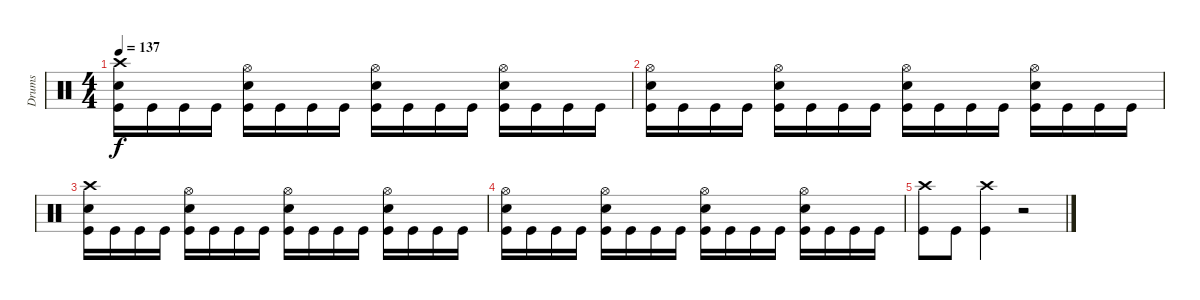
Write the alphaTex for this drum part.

\track ("Drums" "Drums") {instrument percussion}
\staff {score}
\articulation defaults
\ts (4 4)
\tempo 137
\clef neutral
\ks c
("Kick (hit)" "Snare (hit) 2" "Crash high (hit)").16{dy f} "Kick (hit)".16 "Kick (hit)".16 "Kick (hit)".16 ("Kick (hit)" "Snare (hit) 2" "Hi-Hat (open)").16 "Kick (hit)".16 "Kick (hit)".16 "Kick (hit)".16 ("Kick (hit)" "Snare (hit) 2" "Hi-Hat (open)").16 "Kick (hit)".16 "Kick (hit)".16 "Kick (hit)".16 ("Kick (hit)" "Snare (hit) 2" "Hi-Hat (open)").16 "Kick (hit)".16 "Kick (hit)".16 "Kick (hit)".16 |
("Kick (hit)" "Snare (hit) 2" "Hi-Hat (open)").16 "Kick (hit)".16 "Kick (hit)".16 "Kick (hit)".16 ("Kick (hit)" "Snare (hit) 2" "Hi-Hat (open)").16 "Kick (hit)".16 "Kick (hit)".16 "Kick (hit)".16 ("Kick (hit)" "Snare (hit) 2" "Hi-Hat (open)").16 "Kick (hit)".16 "Kick (hit)".16 "Kick (hit)".16 ("Kick (hit)" "Snare (hit) 2" "Hi-Hat (open)").16 "Kick (hit)".16 "Kick (hit)".16 "Kick (hit)".16 |
("Kick (hit)" "Snare (hit) 2" "Crash high (hit)").16 "Kick (hit)".16 "Kick (hit)".16 "Kick (hit)".16 ("Kick (hit)" "Snare (hit) 2" "Hi-Hat (open)").16 "Kick (hit)".16 "Kick (hit)".16 "Kick (hit)".16 ("Kick (hit)" "Snare (hit) 2" "Hi-Hat (open)").16 "Kick (hit)".16 "Kick (hit)".16 "Kick (hit)".16 ("Kick (hit)" "Snare (hit) 2" "Hi-Hat (open)").16 "Kick (hit)".16 "Kick (hit)".16 "Kick (hit)".16 |
("Kick (hit)" "Snare (hit) 2" "Hi-Hat (open)").16 "Kick (hit)".16 "Kick (hit)".16 "Kick (hit)".16 ("Kick (hit)" "Snare (hit) 2" "Hi-Hat (open)").16 "Kick (hit)".16 "Kick (hit)".16 "Kick (hit)".16 ("Kick (hit)" "Snare (hit) 2" "Hi-Hat (open)").16 "Kick (hit)".16 "Kick (hit)".16 "Kick (hit)".16 ("Kick (hit)" "Snare (hit) 2" "Hi-Hat (open)").16 "Kick (hit)".16 "Kick (hit)".16 "Kick (hit)".16 |
("Kick (hit)" "Crash high (hit)").8 "Kick (hit)".8 ("Kick (hit)" "Crash high (hit)").4 r.2
